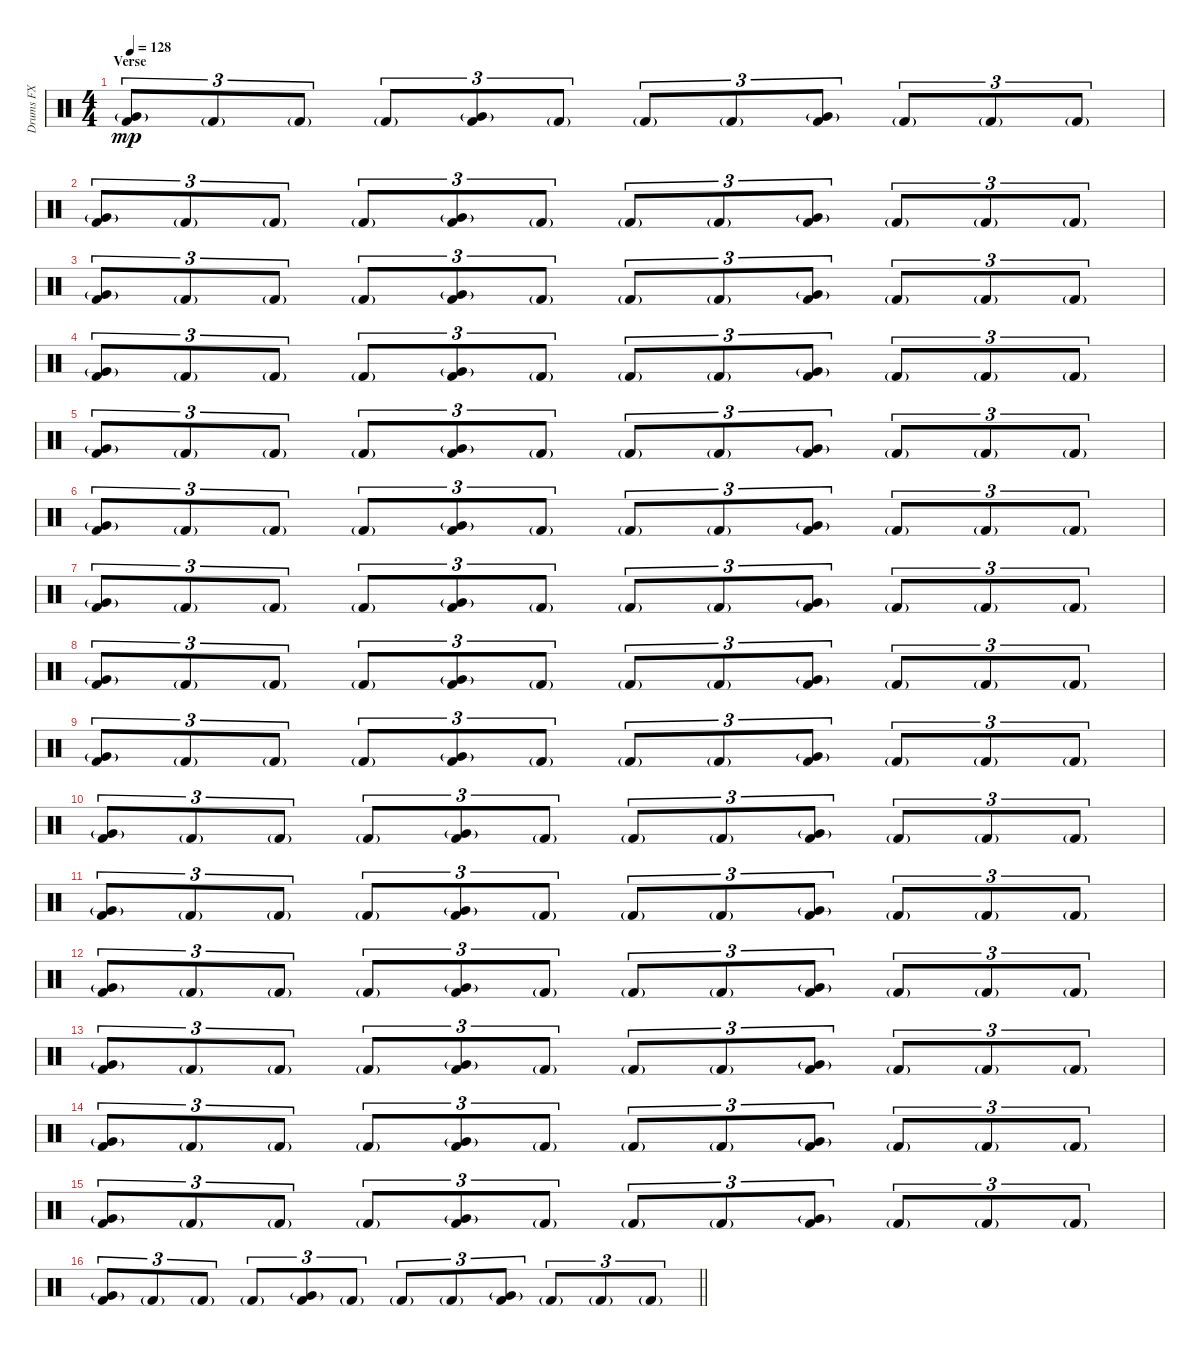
\track ("Drums FX" "Drums FX") {instrument percussion}
\staff {score}
\articulation defaults
\ts (4 4)
\section ("" "Verse")
\tempo 128
\clef neutral
\ks c
("Very Low Tom (hit)"{g} "Kick (hit) 2").8{tu (3 2) dy mp} "Kick (hit) 2"{g}.8{tu (3 2)} "Kick (hit) 2"{g}.8{tu (3 2)} "Kick (hit) 2"{g}.8{tu (3 2)} ("Very Low Tom (hit)"{g} "Kick (hit) 2").8{tu (3 2)} "Kick (hit) 2"{g}.8{tu (3 2)} "Kick (hit) 2"{g}.8{tu (3 2)} "Kick (hit) 2"{g}.8{tu (3 2)} ("Very Low Tom (hit)"{g} "Kick (hit) 2").8{tu (3 2)} "Kick (hit) 2"{g}.8{tu (3 2)} "Kick (hit) 2"{g}.8{tu (3 2)} "Kick (hit) 2"{g}.8{tu (3 2)} |
("Very Low Tom (hit)"{g} "Kick (hit) 2").8{tu (3 2)} "Kick (hit) 2"{g}.8{tu (3 2)} "Kick (hit) 2"{g}.8{tu (3 2)} "Kick (hit) 2"{g}.8{tu (3 2)} ("Very Low Tom (hit)"{g} "Kick (hit) 2").8{tu (3 2)} "Kick (hit) 2"{g}.8{tu (3 2)} "Kick (hit) 2"{g}.8{tu (3 2)} "Kick (hit) 2"{g}.8{tu (3 2)} ("Very Low Tom (hit)"{g} "Kick (hit) 2").8{tu (3 2)} "Kick (hit) 2"{g}.8{tu (3 2)} "Kick (hit) 2"{g}.8{tu (3 2)} "Kick (hit) 2"{g}.8{tu (3 2)} |
("Very Low Tom (hit)"{g} "Kick (hit) 2").8{tu (3 2)} "Kick (hit) 2"{g}.8{tu (3 2)} "Kick (hit) 2"{g}.8{tu (3 2)} "Kick (hit) 2"{g}.8{tu (3 2)} ("Very Low Tom (hit)"{g} "Kick (hit) 2").8{tu (3 2)} "Kick (hit) 2"{g}.8{tu (3 2)} "Kick (hit) 2"{g}.8{tu (3 2)} "Kick (hit) 2"{g}.8{tu (3 2)} ("Very Low Tom (hit)"{g} "Kick (hit) 2").8{tu (3 2)} "Kick (hit) 2"{g}.8{tu (3 2)} "Kick (hit) 2"{g}.8{tu (3 2)} "Kick (hit) 2"{g}.8{tu (3 2)} |
("Very Low Tom (hit)"{g} "Kick (hit) 2").8{tu (3 2)} "Kick (hit) 2"{g}.8{tu (3 2)} "Kick (hit) 2"{g}.8{tu (3 2)} "Kick (hit) 2"{g}.8{tu (3 2)} ("Very Low Tom (hit)"{g} "Kick (hit) 2").8{tu (3 2)} "Kick (hit) 2"{g}.8{tu (3 2)} "Kick (hit) 2"{g}.8{tu (3 2)} "Kick (hit) 2"{g}.8{tu (3 2)} ("Very Low Tom (hit)"{g} "Kick (hit) 2").8{tu (3 2)} "Kick (hit) 2"{g}.8{tu (3 2)} "Kick (hit) 2"{g}.8{tu (3 2)} "Kick (hit) 2"{g}.8{tu (3 2)} |
("Very Low Tom (hit)"{g} "Kick (hit) 2").8{tu (3 2)} "Kick (hit) 2"{g}.8{tu (3 2)} "Kick (hit) 2"{g}.8{tu (3 2)} "Kick (hit) 2"{g}.8{tu (3 2)} ("Very Low Tom (hit)"{g} "Kick (hit) 2").8{tu (3 2)} "Kick (hit) 2"{g}.8{tu (3 2)} "Kick (hit) 2"{g}.8{tu (3 2)} "Kick (hit) 2"{g}.8{tu (3 2)} ("Very Low Tom (hit)"{g} "Kick (hit) 2").8{tu (3 2)} "Kick (hit) 2"{g}.8{tu (3 2)} "Kick (hit) 2"{g}.8{tu (3 2)} "Kick (hit) 2"{g}.8{tu (3 2)} |
("Very Low Tom (hit)"{g} "Kick (hit) 2").8{tu (3 2)} "Kick (hit) 2"{g}.8{tu (3 2)} "Kick (hit) 2"{g}.8{tu (3 2)} "Kick (hit) 2"{g}.8{tu (3 2)} ("Very Low Tom (hit)"{g} "Kick (hit) 2").8{tu (3 2)} "Kick (hit) 2"{g}.8{tu (3 2)} "Kick (hit) 2"{g}.8{tu (3 2)} "Kick (hit) 2"{g}.8{tu (3 2)} ("Very Low Tom (hit)"{g} "Kick (hit) 2").8{tu (3 2)} "Kick (hit) 2"{g}.8{tu (3 2)} "Kick (hit) 2"{g}.8{tu (3 2)} "Kick (hit) 2"{g}.8{tu (3 2)} |
("Very Low Tom (hit)"{g} "Kick (hit) 2").8{tu (3 2)} "Kick (hit) 2"{g}.8{tu (3 2)} "Kick (hit) 2"{g}.8{tu (3 2)} "Kick (hit) 2"{g}.8{tu (3 2)} ("Very Low Tom (hit)"{g} "Kick (hit) 2").8{tu (3 2)} "Kick (hit) 2"{g}.8{tu (3 2)} "Kick (hit) 2"{g}.8{tu (3 2)} "Kick (hit) 2"{g}.8{tu (3 2)} ("Very Low Tom (hit)"{g} "Kick (hit) 2").8{tu (3 2)} "Kick (hit) 2"{g}.8{tu (3 2)} "Kick (hit) 2"{g}.8{tu (3 2)} "Kick (hit) 2"{g}.8{tu (3 2)} |
("Very Low Tom (hit)"{g} "Kick (hit) 2").8{tu (3 2)} "Kick (hit) 2"{g}.8{tu (3 2)} "Kick (hit) 2"{g}.8{tu (3 2)} "Kick (hit) 2"{g}.8{tu (3 2)} ("Very Low Tom (hit)"{g} "Kick (hit) 2").8{tu (3 2)} "Kick (hit) 2"{g}.8{tu (3 2)} "Kick (hit) 2"{g}.8{tu (3 2)} "Kick (hit) 2"{g}.8{tu (3 2)} ("Very Low Tom (hit)"{g} "Kick (hit) 2").8{tu (3 2)} "Kick (hit) 2"{g}.8{tu (3 2)} "Kick (hit) 2"{g}.8{tu (3 2)} "Kick (hit) 2"{g}.8{tu (3 2)} |
("Very Low Tom (hit)"{g} "Kick (hit) 2").8{tu (3 2)} "Kick (hit) 2"{g}.8{tu (3 2)} "Kick (hit) 2"{g}.8{tu (3 2)} "Kick (hit) 2"{g}.8{tu (3 2)} ("Very Low Tom (hit)"{g} "Kick (hit) 2").8{tu (3 2)} "Kick (hit) 2"{g}.8{tu (3 2)} "Kick (hit) 2"{g}.8{tu (3 2)} "Kick (hit) 2"{g}.8{tu (3 2)} ("Very Low Tom (hit)"{g} "Kick (hit) 2").8{tu (3 2)} "Kick (hit) 2"{g}.8{tu (3 2)} "Kick (hit) 2"{g}.8{tu (3 2)} "Kick (hit) 2"{g}.8{tu (3 2)} |
("Very Low Tom (hit)"{g} "Kick (hit) 2").8{tu (3 2)} "Kick (hit) 2"{g}.8{tu (3 2)} "Kick (hit) 2"{g}.8{tu (3 2)} "Kick (hit) 2"{g}.8{tu (3 2)} ("Very Low Tom (hit)"{g} "Kick (hit) 2").8{tu (3 2)} "Kick (hit) 2"{g}.8{tu (3 2)} "Kick (hit) 2"{g}.8{tu (3 2)} "Kick (hit) 2"{g}.8{tu (3 2)} ("Very Low Tom (hit)"{g} "Kick (hit) 2").8{tu (3 2)} "Kick (hit) 2"{g}.8{tu (3 2)} "Kick (hit) 2"{g}.8{tu (3 2)} "Kick (hit) 2"{g}.8{tu (3 2)} |
("Very Low Tom (hit)"{g} "Kick (hit) 2").8{tu (3 2)} "Kick (hit) 2"{g}.8{tu (3 2)} "Kick (hit) 2"{g}.8{tu (3 2)} "Kick (hit) 2"{g}.8{tu (3 2)} ("Very Low Tom (hit)"{g} "Kick (hit) 2").8{tu (3 2)} "Kick (hit) 2"{g}.8{tu (3 2)} "Kick (hit) 2"{g}.8{tu (3 2)} "Kick (hit) 2"{g}.8{tu (3 2)} ("Very Low Tom (hit)"{g} "Kick (hit) 2").8{tu (3 2)} "Kick (hit) 2"{g}.8{tu (3 2)} "Kick (hit) 2"{g}.8{tu (3 2)} "Kick (hit) 2"{g}.8{tu (3 2)} |
("Very Low Tom (hit)"{g} "Kick (hit) 2").8{tu (3 2)} "Kick (hit) 2"{g}.8{tu (3 2)} "Kick (hit) 2"{g}.8{tu (3 2)} "Kick (hit) 2"{g}.8{tu (3 2)} ("Very Low Tom (hit)"{g} "Kick (hit) 2").8{tu (3 2)} "Kick (hit) 2"{g}.8{tu (3 2)} "Kick (hit) 2"{g}.8{tu (3 2)} "Kick (hit) 2"{g}.8{tu (3 2)} ("Very Low Tom (hit)"{g} "Kick (hit) 2").8{tu (3 2)} "Kick (hit) 2"{g}.8{tu (3 2)} "Kick (hit) 2"{g}.8{tu (3 2)} "Kick (hit) 2"{g}.8{tu (3 2)} |
("Very Low Tom (hit)"{g} "Kick (hit) 2").8{tu (3 2)} "Kick (hit) 2"{g}.8{tu (3 2)} "Kick (hit) 2"{g}.8{tu (3 2)} "Kick (hit) 2"{g}.8{tu (3 2)} ("Very Low Tom (hit)"{g} "Kick (hit) 2").8{tu (3 2)} "Kick (hit) 2"{g}.8{tu (3 2)} "Kick (hit) 2"{g}.8{tu (3 2)} "Kick (hit) 2"{g}.8{tu (3 2)} ("Very Low Tom (hit)"{g} "Kick (hit) 2").8{tu (3 2)} "Kick (hit) 2"{g}.8{tu (3 2)} "Kick (hit) 2"{g}.8{tu (3 2)} "Kick (hit) 2"{g}.8{tu (3 2)} |
("Very Low Tom (hit)"{g} "Kick (hit) 2").8{tu (3 2)} "Kick (hit) 2"{g}.8{tu (3 2)} "Kick (hit) 2"{g}.8{tu (3 2)} "Kick (hit) 2"{g}.8{tu (3 2)} ("Very Low Tom (hit)"{g} "Kick (hit) 2").8{tu (3 2)} "Kick (hit) 2"{g}.8{tu (3 2)} "Kick (hit) 2"{g}.8{tu (3 2)} "Kick (hit) 2"{g}.8{tu (3 2)} ("Very Low Tom (hit)"{g} "Kick (hit) 2").8{tu (3 2)} "Kick (hit) 2"{g}.8{tu (3 2)} "Kick (hit) 2"{g}.8{tu (3 2)} "Kick (hit) 2"{g}.8{tu (3 2)} |
("Very Low Tom (hit)"{g} "Kick (hit) 2").8{tu (3 2)} "Kick (hit) 2"{g}.8{tu (3 2)} "Kick (hit) 2"{g}.8{tu (3 2)} "Kick (hit) 2"{g}.8{tu (3 2)} ("Very Low Tom (hit)"{g} "Kick (hit) 2").8{tu (3 2)} "Kick (hit) 2"{g}.8{tu (3 2)} "Kick (hit) 2"{g}.8{tu (3 2)} "Kick (hit) 2"{g}.8{tu (3 2)} ("Very Low Tom (hit)"{g} "Kick (hit) 2").8{tu (3 2)} "Kick (hit) 2"{g}.8{tu (3 2)} "Kick (hit) 2"{g}.8{tu (3 2)} "Kick (hit) 2"{g}.8{tu (3 2)} |
\barLineRight lightlight
("Very Low Tom (hit)"{g} "Kick (hit) 2").8{tu (3 2)} "Kick (hit) 2"{g}.8{tu (3 2)} "Kick (hit) 2"{g}.8{tu (3 2)} "Kick (hit) 2"{g}.8{tu (3 2)} ("Very Low Tom (hit)"{g} "Kick (hit) 2").8{tu (3 2)} "Kick (hit) 2"{g}.8{tu (3 2)} "Kick (hit) 2"{g}.8{tu (3 2)} "Kick (hit) 2"{g}.8{tu (3 2)} ("Very Low Tom (hit)"{g} "Kick (hit) 2").8{tu (3 2)} "Kick (hit) 2"{g}.8{tu (3 2)} "Kick (hit) 2"{g}.8{tu (3 2)} "Kick (hit) 2"{g}.8{tu (3 2)}
